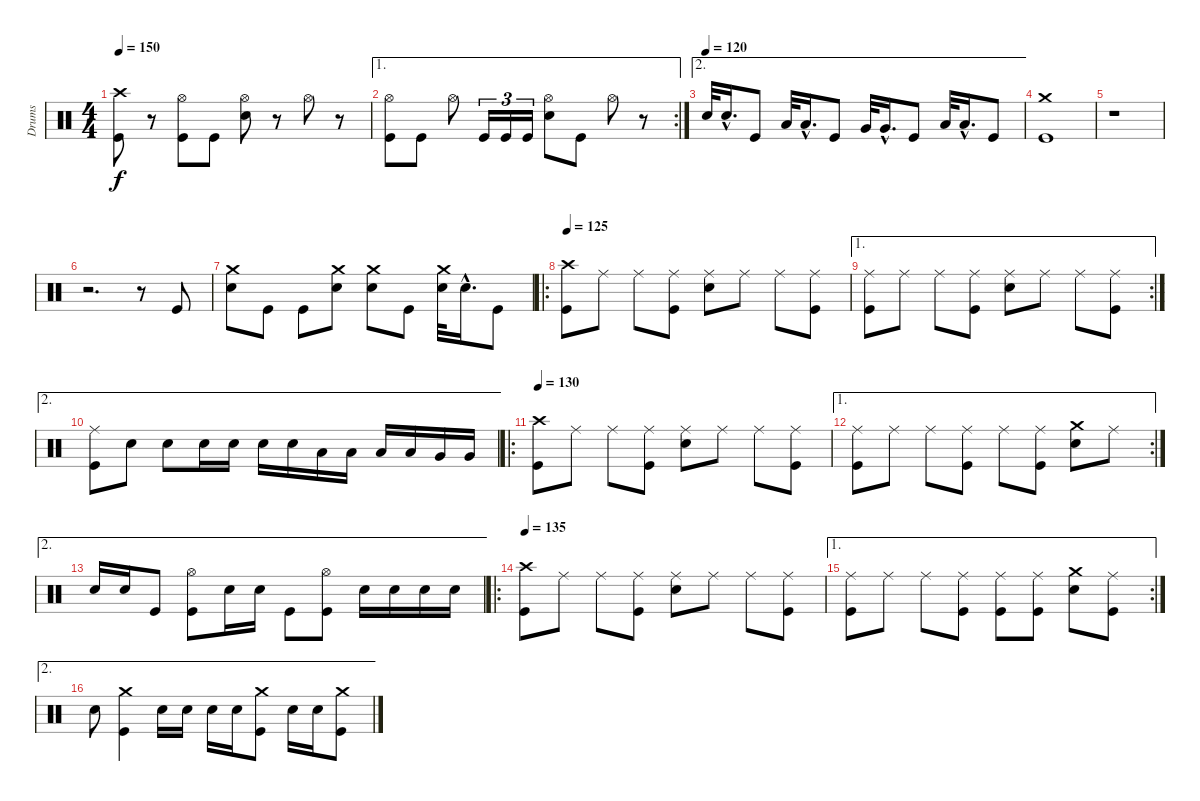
\track ("Drums" "Drums") {instrument percussion}
\staff {score}
\articulation defaults
\ts (4 4)
\tempo 150
\clef neutral
\ks c
("Crash high (hit)" "Kick (hit)").8{dy f} r.8 ("Hi-Hat (open)" "Kick (hit)").8 "Kick (hit)".8 ("Hi-Hat (open)" "Electric Snare (hit)").8 r.8 "Hi-Hat (open)".8 r.8 |
\ae 1
\rc 2
("Hi-Hat (open)" "Kick (hit)").8 "Kick (hit)".8 "Hi-Hat (open)".8 "Kick (hit)".16{tu (3 2)} "Kick (hit)".16{tu (3 2)} "Kick (hit)".16{tu (3 2)} ("Hi-Hat (open)" "Electric Snare (hit)").8 "Kick (hit)".8 "Hi-Hat (open)".8 r.8 |
\ae 2
\tempo (120)
"Electric Snare (hit)".32 "Electric Snare (hit)"{hac}.16{d} "Kick (hit)".8 "Low Tom (hit)".32 "Low Tom (hit)"{hac}.16{d} "Kick (hit)".8 "Very Low Tom (hit)".32 "Very Low Tom (hit)"{hac}.16{d} "Kick (hit)".8 "Low Floor Tom (hit)".32 "Low Floor Tom (hit)"{hac}.16{d} "Kick (hit)".8 |
("Crash medium (hit)" "Kick (hit)").1 |
r.1 |
r.2{d} r.8 "Kick (hit)".8 |
("Crash medium (hit)" "Electric Snare (hit)").8 "Kick (hit)".8 "Kick (hit)".8 ("Crash medium (hit)" "Electric Snare (hit)").8 ("Crash medium (hit)" "Electric Snare (hit)").8 "Kick (hit)".8 ("Crash medium (hit)" "Electric Snare (hit)").32 "Electric Snare (hit)"{hac}.16{d} "Kick (hit)".8 |
\ro
\tempo 125
("Crash high (hit)" "Kick (hit)").8 "Ride (middle)".8 "Ride (middle)".8 ("Ride (middle)" "Kick (hit)").8 ("Ride (middle)" "Electric Snare (hit)").8 "Ride (middle)".8 "Ride (middle)".8 ("Ride (middle)" "Kick (hit)").8 |
\ae 1
\rc 2
("Ride (middle)" "Kick (hit)").8 "Ride (middle)".8 "Ride (middle)".8 ("Ride (middle)" "Kick (hit)").8 ("Ride (middle)" "Electric Snare (hit)").8 "Ride (middle)".8 "Ride (middle)".8 ("Ride (middle)" "Kick (hit)").8 |
\ae 2
("Ride (middle)" "Kick (hit)").8 "Electric Snare (hit)".8 "Electric Snare (hit)".8 "Electric Snare (hit)".16 "Electric Snare (hit)".16 "Electric Snare (hit)".16 "Electric Snare (hit)".16 "Low Tom (hit)".16 "Low Tom (hit)".16 "Low Tom (hit)".16 "Low Tom (hit)".16 "Very Low Tom (hit)".16 "Very Low Tom (hit)".16 |
\ro
\tempo 130
("Crash high (hit)" "Kick (hit)").8 "Ride (middle)".8 "Ride (middle)".8 ("Ride (middle)" "Kick (hit)").8 ("Ride (middle)" "Electric Snare (hit)").8 "Ride (middle)".8 "Ride (middle)".8 ("Ride (middle)" "Kick (hit)").8 |
\ae 1
\rc 2
("Ride (middle)" "Kick (hit)").8 "Ride (middle)".8 "Ride (middle)".8 ("Ride (middle)" "Kick (hit)").8 "Ride (middle)".8 ("Ride (middle)" "Kick (hit)").8 ("Crash medium (hit)" "Electric Snare (hit)").8 "Ride (middle)".8 |
\ae 2 "Electric Snare (hit)".16 "Electric Snare (hit)".16 "Kick (hit)".8
("Hi-Hat (open)" "Kick (hit)").8 "Electric Snare (hit)".16 "Electric Snare (hit)".16 "Kick (hit)".8 ("Hi-Hat (open)" "Kick (hit)").8 "Electric Snare (hit)".16 "Electric Snare (hit)".16 "Electric Snare (hit)".16 "Electric Snare (hit)".16 |
\ro
\tempo 135
("Crash high (hit)" "Kick (hit)").8 "Ride (middle)".8 "Ride (middle)".8 ("Ride (middle)" "Kick (hit)").8 ("Ride (middle)" "Electric Snare (hit)").8 "Ride (middle)".8 "Ride (middle)".8 ("Ride (middle)" "Kick (hit)").8 |
\ae 1
\rc 2
("Ride (middle)" "Kick (hit)").8 "Ride (middle)".8 "Ride (middle)".8 ("Ride (middle)" "Kick (hit)").8 ("Ride (middle)" "Kick (hit)").8 ("Ride (middle)" "Kick (hit)").8 ("Crash medium (hit)" "Electric Snare (hit)").8 ("Ride (middle)" "Kick (hit)").8 |
\ae 2 "Electric Snare (hit)".8
("Crash medium (hit)" "Kick (hit)").4 "Electric Snare (hit)".16 "Electric Snare (hit)".16 "Electric Snare (hit)".16 "Electric Snare (hit)".16 ("Crash medium (hit)" "Kick (hit)").8 "Electric Snare (hit)".16 "Electric Snare (hit)".16 ("Crash medium (hit)" "Kick (hit)").8
